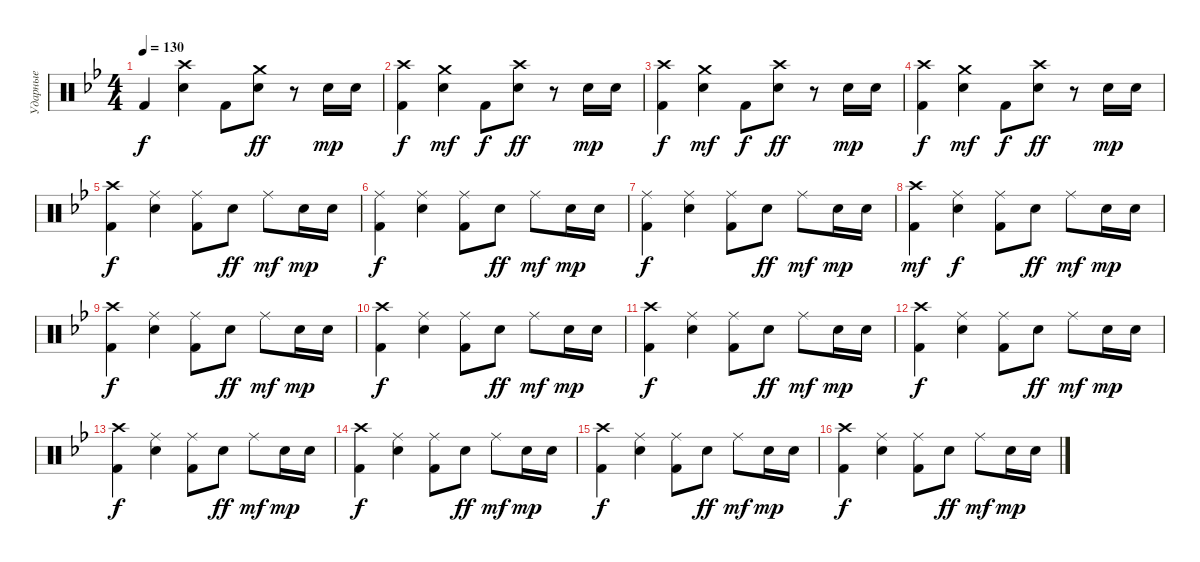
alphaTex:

\track ("Ударные" "Ударные") {instrument percussion}
\staff {score}
\articulation defaults
\ts (4 4)
\tempo 130
\clef neutral
\ks gminor "Kick (hit) 2".4{dy f}
("Crash high (hit)" "Snare (hit) 2").4 "Kick (hit) 2".8 ("Crash medium (hit)" "Snare (hit) 2").8{dy ff} r.8 "Snare (hit) 2".16{dy mp} "Snare (hit) 2".16 |
("Crash high (hit)" "Kick (hit) 2").4{dy f} ("Crash medium (hit)" "Snare (hit) 2").4{dy mf} "Kick (hit) 2".8{dy f} ("Crash high (hit)" "Snare (hit) 2").8{dy ff} r.8 "Snare (hit) 2".16{dy mp} "Snare (hit) 2".16 |
("Crash high (hit)" "Kick (hit) 2").4{dy f} ("Crash medium (hit)" "Snare (hit) 2").4{dy mf} "Kick (hit) 2".8{dy f} ("Crash high (hit)" "Snare (hit) 2").8{dy ff} r.8 "Snare (hit) 2".16{dy mp} "Snare (hit) 2".16 |
("Crash high (hit)" "Kick (hit) 2").4{dy f} ("Crash medium (hit)" "Snare (hit) 2").4{dy mf} "Kick (hit) 2".8{dy f} ("Crash high (hit)" "Snare (hit) 2").8{dy ff} r.8 "Snare (hit) 2".16{dy mp} "Snare (hit) 2".16 |
("Crash high (hit)" "Kick (hit) 2").4{dy f} ("Ride (middle)" "Snare (hit) 2").4 ("Ride (middle)" "Kick (hit) 2").8 "Snare (hit) 2".8{dy ff} "Ride (middle)".8{dy mf} "Snare (hit) 2".16{dy mp} "Snare (hit) 2".16 |
("Ride (middle)" "Kick (hit) 2").4{dy f} ("Ride (middle)" "Snare (hit) 2").4 ("Ride (middle)" "Kick (hit) 2").8 "Snare (hit) 2".8{dy ff} "Ride (middle)".8{dy mf} "Snare (hit) 2".16{dy mp} "Snare (hit) 2".16 |
("Ride (middle)" "Kick (hit) 2").4{dy f} ("Ride (middle)" "Snare (hit) 2").4 ("Ride (middle)" "Kick (hit) 2").8 "Snare (hit) 2".8{dy ff} "Ride (middle)".8{dy mf} "Snare (hit) 2".16{dy mp} "Snare (hit) 2".16 |
("Crash high (hit)" "Kick (hit) 2").4{dy mf} ("Ride (middle)" "Snare (hit) 2").4{dy f} ("Ride (middle)" "Kick (hit) 2").8 "Snare (hit) 2".8{dy ff} "Ride (middle)".8{dy mf} "Snare (hit) 2".16{dy mp} "Snare (hit) 2".16 |
("Crash high (hit)" "Kick (hit) 2").4{dy f} ("Ride (middle)" "Snare (hit) 2").4 ("Ride (middle)" "Kick (hit) 2").8 "Snare (hit) 2".8{dy ff} "Ride (middle)".8{dy mf} "Snare (hit) 2".16{dy mp} "Snare (hit) 2".16 |
("Crash high (hit)" "Kick (hit) 2").4{dy f} ("Ride (middle)" "Snare (hit) 2").4 ("Ride (middle)" "Kick (hit) 2").8 "Snare (hit) 2".8{dy ff} "Ride (middle)".8{dy mf} "Snare (hit) 2".16{dy mp} "Snare (hit) 2".16 |
("Crash high (hit)" "Kick (hit) 2").4{dy f} ("Ride (middle)" "Snare (hit) 2").4 ("Ride (middle)" "Kick (hit) 2").8 "Snare (hit) 2".8{dy ff} "Ride (middle)".8{dy mf} "Snare (hit) 2".16{dy mp} "Snare (hit) 2".16 |
("Crash high (hit)" "Kick (hit) 2").4{dy f} ("Ride (middle)" "Snare (hit) 2").4 ("Ride (middle)" "Kick (hit) 2").8 "Snare (hit) 2".8{dy ff} "Ride (middle)".8{dy mf} "Snare (hit) 2".16{dy mp} "Snare (hit) 2".16 |
("Crash high (hit)" "Kick (hit) 2").4{dy f} ("Ride (middle)" "Snare (hit) 2").4 ("Ride (middle)" "Kick (hit) 2").8 "Snare (hit) 2".8{dy ff} "Ride (middle)".8{dy mf} "Snare (hit) 2".16{dy mp} "Snare (hit) 2".16 |
("Crash high (hit)" "Kick (hit) 2").4{dy f} ("Ride (middle)" "Snare (hit) 2").4 ("Ride (middle)" "Kick (hit) 2").8 "Snare (hit) 2".8{dy ff} "Ride (middle)".8{dy mf} "Snare (hit) 2".16{dy mp} "Snare (hit) 2".16 |
("Crash high (hit)" "Kick (hit) 2").4{dy f} ("Ride (middle)" "Snare (hit) 2").4 ("Ride (middle)" "Kick (hit) 2").8 "Snare (hit) 2".8{dy ff} "Ride (middle)".8{dy mf} "Snare (hit) 2".16{dy mp} "Snare (hit) 2".16 |
("Crash high (hit)" "Kick (hit) 2").4{dy f} ("Ride (middle)" "Snare (hit) 2").4 ("Ride (middle)" "Kick (hit) 2").8 "Snare (hit) 2".8{dy ff} "Ride (middle)".8{dy mf} "Snare (hit) 2".16{dy mp} "Snare (hit) 2".16
